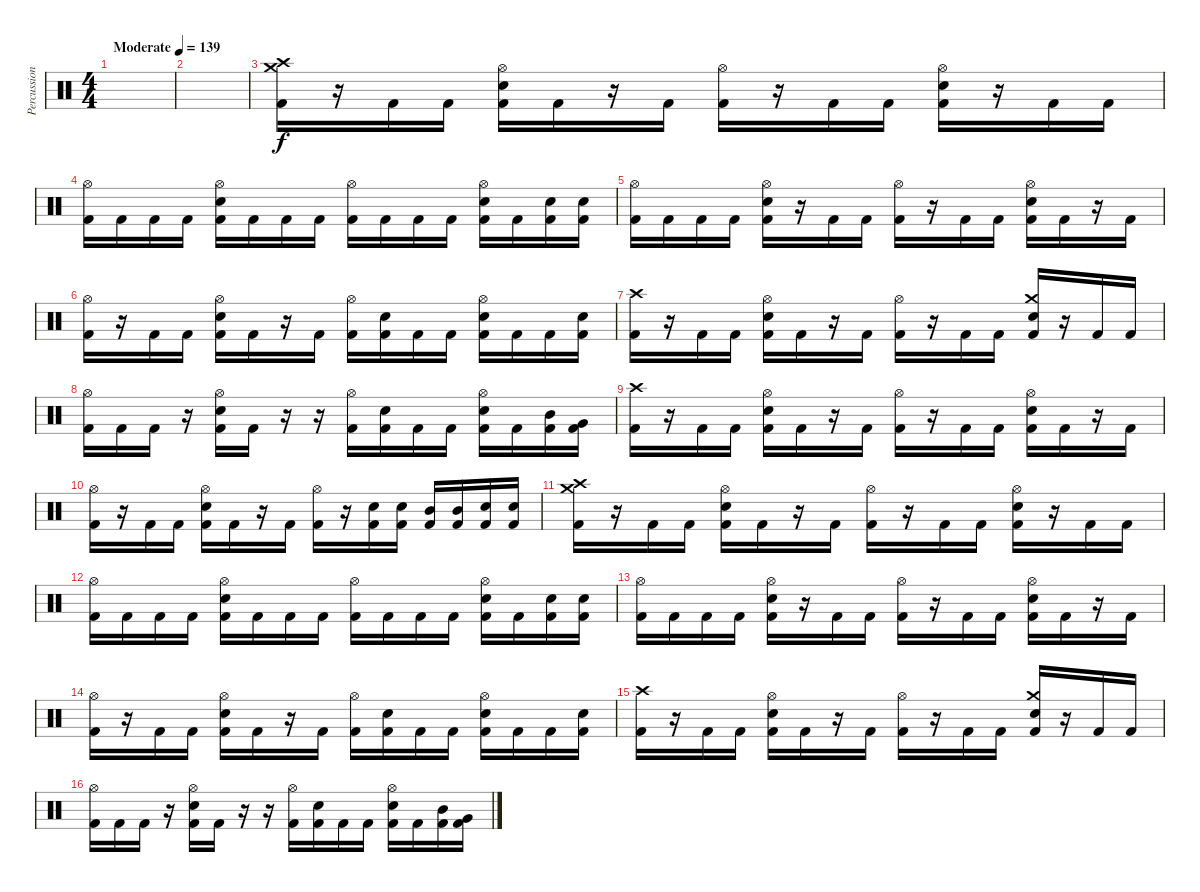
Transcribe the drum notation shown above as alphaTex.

\track ("Percussion" "Percussion") {instrument percussion}
\staff {score}
\articulation defaults
\ts (4 4)
\tempo (139 "Moderate")
\clef neutral
\ks c
|
|
("Kick (hit) 2" "Crash medium (hit)" "Crash high (hit)").16 r.16 "Kick (hit) 2".16 "Kick (hit) 2".16 ("Kick (hit) 2" "Electric Snare (hit)" "Hi-Hat (open)").16 "Kick (hit) 2".16 r.16 "Kick (hit) 2".16 ("Kick (hit) 2" "Hi-Hat (open)").16 r.16 "Kick (hit) 2".16 "Kick (hit) 2".16 ("Kick (hit) 2" "Electric Snare (hit)" "Hi-Hat (open)").16 r.16 "Kick (hit) 2".16 "Kick (hit) 2".16 |
("Kick (hit) 2" "Hi-Hat (open)").16 "Kick (hit) 2".16 "Kick (hit) 2".16 "Kick (hit) 2".16 ("Kick (hit) 2" "Electric Snare (hit)" "Hi-Hat (open)").16 "Kick (hit) 2".16 "Kick (hit) 2".16 "Kick (hit) 2".16 ("Kick (hit) 2" "Hi-Hat (open)").16 "Kick (hit) 2".16 "Kick (hit) 2".16 "Kick (hit) 2".16 ("Kick (hit) 2" "Electric Snare (hit)" "Hi-Hat (open)").16 "Kick (hit) 2".16 ("Kick (hit) 2" "Electric Snare (hit)").16 ("Kick (hit) 2" "Electric Snare (hit)").16 |
("Kick (hit) 2" "Hi-Hat (open)").16 "Kick (hit) 2".16 "Kick (hit) 2".16 "Kick (hit) 2".16 ("Kick (hit) 2" "Electric Snare (hit)" "Hi-Hat (open)").16 r.16 "Kick (hit) 2".16 "Kick (hit) 2".16 ("Kick (hit) 2" "Hi-Hat (open)").16 r.16 "Kick (hit) 2".16 "Kick (hit) 2".16 ("Kick (hit) 2" "Electric Snare (hit)" "Hi-Hat (open)").16 "Kick (hit) 2".16 r.16 "Kick (hit) 2".16 |
("Kick (hit) 2" "Hi-Hat (open)").16 r.16 "Kick (hit) 2".16 "Kick (hit) 2".16 ("Kick (hit) 2" "Electric Snare (hit)" "Hi-Hat (open)").16 "Kick (hit) 2".16 r.16 "Kick (hit) 2".16 ("Kick (hit) 2" "Hi-Hat (open)").16 ("Kick (hit) 2" "Electric Snare (hit)").16 "Kick (hit) 2".16 "Kick (hit) 2".16 ("Kick (hit) 2" "Electric Snare (hit)" "Hi-Hat (open)").16 "Kick (hit) 2".16 "Kick (hit) 2".16 ("Kick (hit) 2" "Electric Snare (hit)").16 |
("Kick (hit) 2" "Crash high (hit)").16 r.16 "Kick (hit) 2".16 "Kick (hit) 2".16 ("Kick (hit) 2" "Electric Snare (hit)" "Hi-Hat (open)").16 "Kick (hit) 2".16 r.16 "Kick (hit) 2".16 ("Kick (hit) 2" "Hi-Hat (open)").16 r.16 "Kick (hit) 2".16 "Kick (hit) 2".16 ("Kick (hit) 2" "Electric Snare (hit)" "Crash medium (hit)").16 r.16 "Kick (hit) 2".16 "Kick (hit) 2".16 |
("Kick (hit) 2" "Hi-Hat (open)").16 "Kick (hit) 2".16 "Kick (hit) 2".16 r.16 ("Kick (hit) 2" "Electric Snare (hit)" "Hi-Hat (open)").16 "Kick (hit) 2".16 r.16 r.16 ("Kick (hit) 2" "Hi-Hat (open)").16 ("Kick (hit) 2" "Electric Snare (hit)").16 "Kick (hit) 2".16 "Kick (hit) 2".16 ("Kick (hit) 2" "Electric Snare (hit)" "Hi-Hat (open)").16 "Kick (hit) 2".16 ("Kick (hit) 2" "Mid Tom (hit)").16 ("Kick (hit) 2" "Very Low Tom (hit)").16 |
("Kick (hit) 2" "Crash high (hit)").16 r.16 "Kick (hit) 2".16 "Kick (hit) 2".16 ("Kick (hit) 2" "Electric Snare (hit)" "Hi-Hat (open)").16 "Kick (hit) 2".16 r.16 "Kick (hit) 2".16 ("Kick (hit) 2" "Hi-Hat (open)").16 r.16 "Kick (hit) 2".16 "Kick (hit) 2".16 ("Kick (hit) 2" "Electric Snare (hit)" "Hi-Hat (open)").16 "Kick (hit) 2".16 r.16 "Kick (hit) 2".16 |
("Kick (hit) 2" "Hi-Hat (open)").16 r.16 "Kick (hit) 2".16 "Kick (hit) 2".16 ("Kick (hit) 2" "Electric Snare (hit)" "Hi-Hat (open)").16 "Kick (hit) 2".16 r.16 "Kick (hit) 2".16 ("Kick (hit) 2" "Hi-Hat (open)").16 r.16 ("Kick (hit) 2" "Electric Snare (hit)").16 ("Kick (hit) 2" "Electric Snare (hit)").16 ("Kick (hit) 2" "Mid Tom (hit)").16 ("Kick (hit) 2" "Mid Tom (hit)").16 ("Kick (hit) 2" "Electric Snare (hit)").16 ("Kick (hit) 2" "Electric Snare (hit)").16 |
("Kick (hit) 2" "Crash medium (hit)" "Crash high (hit)").16 r.16 "Kick (hit) 2".16 "Kick (hit) 2".16 ("Kick (hit) 2" "Electric Snare (hit)" "Hi-Hat (open)").16 "Kick (hit) 2".16 r.16 "Kick (hit) 2".16 ("Kick (hit) 2" "Hi-Hat (open)").16 r.16 "Kick (hit) 2".16 "Kick (hit) 2".16 ("Kick (hit) 2" "Electric Snare (hit)" "Hi-Hat (open)").16 r.16 "Kick (hit) 2".16 "Kick (hit) 2".16 |
("Kick (hit) 2" "Hi-Hat (open)").16 "Kick (hit) 2".16 "Kick (hit) 2".16 "Kick (hit) 2".16 ("Kick (hit) 2" "Electric Snare (hit)" "Hi-Hat (open)").16 "Kick (hit) 2".16 "Kick (hit) 2".16 "Kick (hit) 2".16 ("Kick (hit) 2" "Hi-Hat (open)").16 "Kick (hit) 2".16 "Kick (hit) 2".16 "Kick (hit) 2".16 ("Kick (hit) 2" "Electric Snare (hit)" "Hi-Hat (open)").16 "Kick (hit) 2".16 ("Kick (hit) 2" "Electric Snare (hit)").16 ("Kick (hit) 2" "Electric Snare (hit)").16 |
("Kick (hit) 2" "Hi-Hat (open)").16 "Kick (hit) 2".16 "Kick (hit) 2".16 "Kick (hit) 2".16 ("Kick (hit) 2" "Electric Snare (hit)" "Hi-Hat (open)").16 r.16 "Kick (hit) 2".16 "Kick (hit) 2".16 ("Kick (hit) 2" "Hi-Hat (open)").16 r.16 "Kick (hit) 2".16 "Kick (hit) 2".16 ("Kick (hit) 2" "Electric Snare (hit)" "Hi-Hat (open)").16 "Kick (hit) 2".16 r.16 "Kick (hit) 2".16 |
("Kick (hit) 2" "Hi-Hat (open)").16 r.16 "Kick (hit) 2".16 "Kick (hit) 2".16 ("Kick (hit) 2" "Electric Snare (hit)" "Hi-Hat (open)").16 "Kick (hit) 2".16 r.16 "Kick (hit) 2".16 ("Kick (hit) 2" "Hi-Hat (open)").16 ("Kick (hit) 2" "Electric Snare (hit)").16 "Kick (hit) 2".16 "Kick (hit) 2".16 ("Kick (hit) 2" "Electric Snare (hit)" "Hi-Hat (open)").16 "Kick (hit) 2".16 "Kick (hit) 2".16 ("Kick (hit) 2" "Electric Snare (hit)").16 |
("Kick (hit) 2" "Crash high (hit)").16 r.16 "Kick (hit) 2".16 "Kick (hit) 2".16 ("Kick (hit) 2" "Electric Snare (hit)" "Hi-Hat (open)").16 "Kick (hit) 2".16 r.16 "Kick (hit) 2".16 ("Kick (hit) 2" "Hi-Hat (open)").16 r.16 "Kick (hit) 2".16 "Kick (hit) 2".16 ("Kick (hit) 2" "Electric Snare (hit)" "Crash medium (hit)").16 r.16 "Kick (hit) 2".16 "Kick (hit) 2".16 |
("Kick (hit) 2" "Hi-Hat (open)").16 "Kick (hit) 2".16 "Kick (hit) 2".16 r.16 ("Kick (hit) 2" "Electric Snare (hit)" "Hi-Hat (open)").16 "Kick (hit) 2".16 r.16 r.16 ("Kick (hit) 2" "Hi-Hat (open)").16 ("Kick (hit) 2" "Electric Snare (hit)").16 "Kick (hit) 2".16 "Kick (hit) 2".16 ("Kick (hit) 2" "Electric Snare (hit)" "Hi-Hat (open)").16 "Kick (hit) 2".16 ("Kick (hit) 2" "Mid Tom (hit)").16 ("Kick (hit) 2" "Very Low Tom (hit)").16
